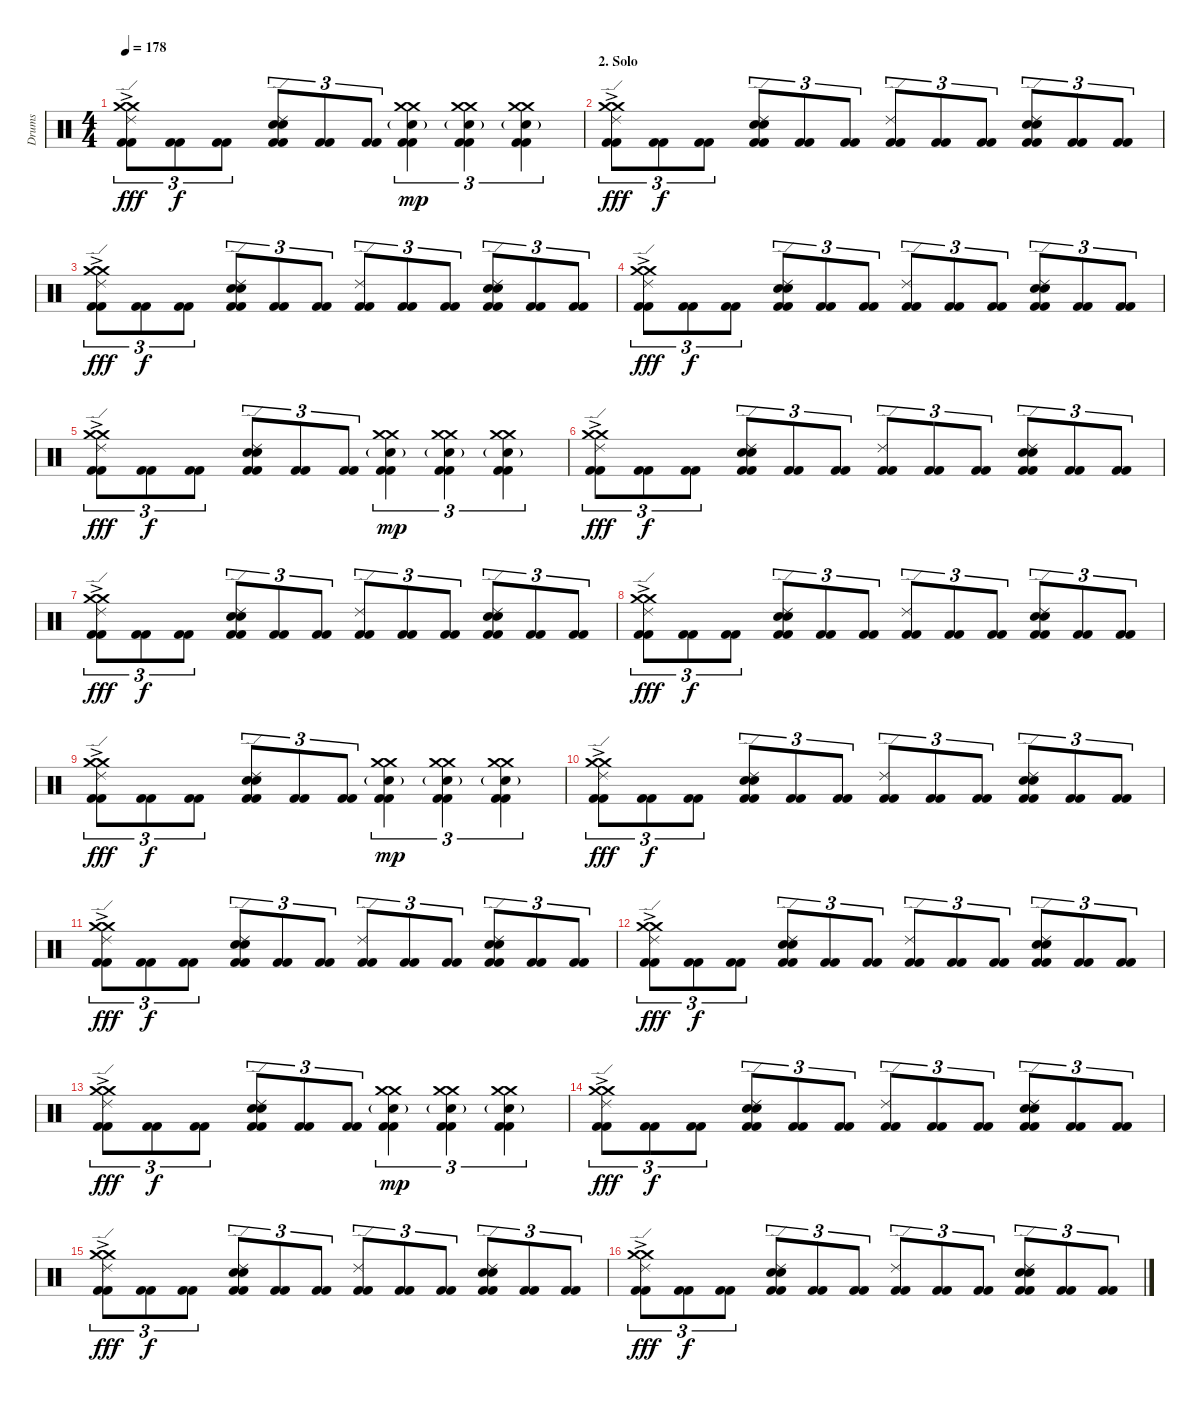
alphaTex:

\track ("Drums" "Drums") {instrument percussion}
\staff {score}
\articulation defaults
\ts (4 4)
\tempo 178
\clef neutral
\ks c
("Crash medium (hit)"{ac} "Crash medium (hit)"{ac} "Ride (edge) 2" "Kick (hit) 2" "Kick (hit) 2").8{tu (3 2) dy fff} ("Kick (hit) 2" "Kick (hit) 2").8{tu (3 2) dy f} ("Kick (hit) 2" "Kick (hit) 2").8{tu (3 2)} ("Ride (edge) 2" "Snare (hit) 2" "Electric Snare (hit)" "Kick (hit) 2" "Kick (hit) 2").8{tu (3 2)} ("Kick (hit) 2" "Kick (hit) 2").8{tu (3 2)} ("Kick (hit) 2" "Kick (hit) 2").8{tu (3 2)} ("Crash medium (hit)" "Crash medium (hit)" "Snare (hit) 2"{g} "Kick (hit) 2" "Kick (hit) 2").4{tu (3 2) dy mp} ("Crash medium (hit)" "Crash medium (hit)" "Snare (hit) 2"{g} "Kick (hit) 2" "Kick (hit) 2").4{tu (3 2)} ("Crash medium (hit)" "Crash medium (hit)" "Snare (hit) 2"{g} "Kick (hit) 2" "Kick (hit) 2").4{tu (3 2)} |
\section ("" "2. Solo")
("Crash medium (hit)"{ac} "Crash medium (hit)"{ac} "Ride (edge) 2" "Kick (hit) 2" "Kick (hit) 2").8{tu (3 2) dy fff} ("Kick (hit) 2" "Kick (hit) 2").8{tu (3 2) dy f} ("Kick (hit) 2" "Kick (hit) 2").8{tu (3 2)} ("Ride (edge) 2" "Snare (hit) 2" "Electric Snare (hit)" "Kick (hit) 2" "Kick (hit) 2").8{tu (3 2)} ("Kick (hit) 2" "Kick (hit) 2").8{tu (3 2)} ("Kick (hit) 2" "Kick (hit) 2").8{tu (3 2)} ("Ride (edge) 2" "Kick (hit) 2" "Kick (hit) 2").8{tu (3 2)} ("Kick (hit) 2" "Kick (hit) 2").8{tu (3 2)} ("Kick (hit) 2" "Kick (hit) 2").8{tu (3 2)} ("Ride (edge) 2" "Snare (hit) 2" "Electric Snare (hit)" "Kick (hit) 2" "Kick (hit) 2").8{tu (3 2)} ("Kick (hit) 2" "Kick (hit) 2").8{tu (3 2)} ("Kick (hit) 2" "Kick (hit) 2").8{tu (3 2)} |
("Crash medium (hit)"{ac} "Crash medium (hit)"{ac} "Ride (edge) 2" "Kick (hit) 2" "Kick (hit) 2").8{tu (3 2) dy fff} ("Kick (hit) 2" "Kick (hit) 2").8{tu (3 2) dy f} ("Kick (hit) 2" "Kick (hit) 2").8{tu (3 2)} ("Ride (edge) 2" "Snare (hit) 2" "Electric Snare (hit)" "Kick (hit) 2" "Kick (hit) 2").8{tu (3 2)} ("Kick (hit) 2" "Kick (hit) 2").8{tu (3 2)} ("Kick (hit) 2" "Kick (hit) 2").8{tu (3 2)} ("Ride (edge) 2" "Kick (hit) 2" "Kick (hit) 2").8{tu (3 2)} ("Kick (hit) 2" "Kick (hit) 2").8{tu (3 2)} ("Kick (hit) 2" "Kick (hit) 2").8{tu (3 2)} ("Ride (edge) 2" "Snare (hit) 2" "Electric Snare (hit)" "Kick (hit) 2" "Kick (hit) 2").8{tu (3 2)} ("Kick (hit) 2" "Kick (hit) 2").8{tu (3 2)} ("Kick (hit) 2" "Kick (hit) 2").8{tu (3 2)} |
("Crash medium (hit)"{ac} "Crash medium (hit)"{ac} "Ride (edge) 2" "Kick (hit) 2" "Kick (hit) 2").8{tu (3 2) dy fff} ("Kick (hit) 2" "Kick (hit) 2").8{tu (3 2) dy f} ("Kick (hit) 2" "Kick (hit) 2").8{tu (3 2)} ("Ride (edge) 2" "Snare (hit) 2" "Electric Snare (hit)" "Kick (hit) 2" "Kick (hit) 2").8{tu (3 2)} ("Kick (hit) 2" "Kick (hit) 2").8{tu (3 2)} ("Kick (hit) 2" "Kick (hit) 2").8{tu (3 2)} ("Ride (edge) 2" "Kick (hit) 2" "Kick (hit) 2").8{tu (3 2)} ("Kick (hit) 2" "Kick (hit) 2").8{tu (3 2)} ("Kick (hit) 2" "Kick (hit) 2").8{tu (3 2)} ("Ride (edge) 2" "Snare (hit) 2" "Electric Snare (hit)" "Kick (hit) 2" "Kick (hit) 2").8{tu (3 2)} ("Kick (hit) 2" "Kick (hit) 2").8{tu (3 2)} ("Kick (hit) 2" "Kick (hit) 2").8{tu (3 2)} |
("Crash medium (hit)"{ac} "Crash medium (hit)"{ac} "Ride (edge) 2" "Kick (hit) 2" "Kick (hit) 2").8{tu (3 2) dy fff} ("Kick (hit) 2" "Kick (hit) 2").8{tu (3 2) dy f} ("Kick (hit) 2" "Kick (hit) 2").8{tu (3 2)} ("Ride (edge) 2" "Snare (hit) 2" "Electric Snare (hit)" "Kick (hit) 2" "Kick (hit) 2").8{tu (3 2)} ("Kick (hit) 2" "Kick (hit) 2").8{tu (3 2)} ("Kick (hit) 2" "Kick (hit) 2").8{tu (3 2)} ("Crash medium (hit)" "Crash medium (hit)" "Snare (hit) 2"{g} "Kick (hit) 2" "Kick (hit) 2").4{tu (3 2) dy mp} ("Crash medium (hit)" "Crash medium (hit)" "Snare (hit) 2"{g} "Kick (hit) 2" "Kick (hit) 2").4{tu (3 2)} ("Crash medium (hit)" "Crash medium (hit)" "Snare (hit) 2"{g} "Kick (hit) 2" "Kick (hit) 2").4{tu (3 2)} |
("Crash medium (hit)"{ac} "Crash medium (hit)"{ac} "Ride (edge) 2" "Kick (hit) 2" "Kick (hit) 2").8{tu (3 2) dy fff} ("Kick (hit) 2" "Kick (hit) 2").8{tu (3 2) dy f} ("Kick (hit) 2" "Kick (hit) 2").8{tu (3 2)} ("Ride (edge) 2" "Snare (hit) 2" "Electric Snare (hit)" "Kick (hit) 2" "Kick (hit) 2").8{tu (3 2)} ("Kick (hit) 2" "Kick (hit) 2").8{tu (3 2)} ("Kick (hit) 2" "Kick (hit) 2").8{tu (3 2)} ("Ride (edge) 2" "Kick (hit) 2" "Kick (hit) 2").8{tu (3 2)} ("Kick (hit) 2" "Kick (hit) 2").8{tu (3 2)} ("Kick (hit) 2" "Kick (hit) 2").8{tu (3 2)} ("Ride (edge) 2" "Snare (hit) 2" "Electric Snare (hit)" "Kick (hit) 2" "Kick (hit) 2").8{tu (3 2)} ("Kick (hit) 2" "Kick (hit) 2").8{tu (3 2)} ("Kick (hit) 2" "Kick (hit) 2").8{tu (3 2)} |
("Crash medium (hit)"{ac} "Crash medium (hit)"{ac} "Ride (edge) 2" "Kick (hit) 2" "Kick (hit) 2").8{tu (3 2) dy fff} ("Kick (hit) 2" "Kick (hit) 2").8{tu (3 2) dy f} ("Kick (hit) 2" "Kick (hit) 2").8{tu (3 2)} ("Ride (edge) 2" "Snare (hit) 2" "Electric Snare (hit)" "Kick (hit) 2" "Kick (hit) 2").8{tu (3 2)} ("Kick (hit) 2" "Kick (hit) 2").8{tu (3 2)} ("Kick (hit) 2" "Kick (hit) 2").8{tu (3 2)} ("Ride (edge) 2" "Kick (hit) 2" "Kick (hit) 2").8{tu (3 2)} ("Kick (hit) 2" "Kick (hit) 2").8{tu (3 2)} ("Kick (hit) 2" "Kick (hit) 2").8{tu (3 2)} ("Ride (edge) 2" "Snare (hit) 2" "Electric Snare (hit)" "Kick (hit) 2" "Kick (hit) 2").8{tu (3 2)} ("Kick (hit) 2" "Kick (hit) 2").8{tu (3 2)} ("Kick (hit) 2" "Kick (hit) 2").8{tu (3 2)} |
("Crash medium (hit)"{ac} "Crash medium (hit)"{ac} "Ride (edge) 2" "Kick (hit) 2" "Kick (hit) 2").8{tu (3 2) dy fff} ("Kick (hit) 2" "Kick (hit) 2").8{tu (3 2) dy f} ("Kick (hit) 2" "Kick (hit) 2").8{tu (3 2)} ("Ride (edge) 2" "Snare (hit) 2" "Electric Snare (hit)" "Kick (hit) 2" "Kick (hit) 2").8{tu (3 2)} ("Kick (hit) 2" "Kick (hit) 2").8{tu (3 2)} ("Kick (hit) 2" "Kick (hit) 2").8{tu (3 2)} ("Ride (edge) 2" "Kick (hit) 2" "Kick (hit) 2").8{tu (3 2)} ("Kick (hit) 2" "Kick (hit) 2").8{tu (3 2)} ("Kick (hit) 2" "Kick (hit) 2").8{tu (3 2)} ("Ride (edge) 2" "Snare (hit) 2" "Electric Snare (hit)" "Kick (hit) 2" "Kick (hit) 2").8{tu (3 2)} ("Kick (hit) 2" "Kick (hit) 2").8{tu (3 2)} ("Kick (hit) 2" "Kick (hit) 2").8{tu (3 2)} |
("Crash medium (hit)"{ac} "Crash medium (hit)"{ac} "Ride (edge) 2" "Kick (hit) 2" "Kick (hit) 2").8{tu (3 2) dy fff} ("Kick (hit) 2" "Kick (hit) 2").8{tu (3 2) dy f} ("Kick (hit) 2" "Kick (hit) 2").8{tu (3 2)} ("Ride (edge) 2" "Snare (hit) 2" "Electric Snare (hit)" "Kick (hit) 2" "Kick (hit) 2").8{tu (3 2)} ("Kick (hit) 2" "Kick (hit) 2").8{tu (3 2)} ("Kick (hit) 2" "Kick (hit) 2").8{tu (3 2)} ("Crash medium (hit)" "Crash medium (hit)" "Snare (hit) 2"{g} "Kick (hit) 2" "Kick (hit) 2").4{tu (3 2) dy mp} ("Crash medium (hit)" "Crash medium (hit)" "Snare (hit) 2"{g} "Kick (hit) 2" "Kick (hit) 2").4{tu (3 2)} ("Crash medium (hit)" "Crash medium (hit)" "Snare (hit) 2"{g} "Kick (hit) 2" "Kick (hit) 2").4{tu (3 2)} |
("Crash medium (hit)"{ac} "Crash medium (hit)"{ac} "Ride (edge) 2" "Kick (hit) 2" "Kick (hit) 2").8{tu (3 2) dy fff} ("Kick (hit) 2" "Kick (hit) 2").8{tu (3 2) dy f} ("Kick (hit) 2" "Kick (hit) 2").8{tu (3 2)} ("Ride (edge) 2" "Snare (hit) 2" "Electric Snare (hit)" "Kick (hit) 2" "Kick (hit) 2").8{tu (3 2)} ("Kick (hit) 2" "Kick (hit) 2").8{tu (3 2)} ("Kick (hit) 2" "Kick (hit) 2").8{tu (3 2)} ("Ride (edge) 2" "Kick (hit) 2" "Kick (hit) 2").8{tu (3 2)} ("Kick (hit) 2" "Kick (hit) 2").8{tu (3 2)} ("Kick (hit) 2" "Kick (hit) 2").8{tu (3 2)} ("Ride (edge) 2" "Snare (hit) 2" "Electric Snare (hit)" "Kick (hit) 2" "Kick (hit) 2").8{tu (3 2)} ("Kick (hit) 2" "Kick (hit) 2").8{tu (3 2)} ("Kick (hit) 2" "Kick (hit) 2").8{tu (3 2)} |
("Crash medium (hit)"{ac} "Crash medium (hit)"{ac} "Ride (edge) 2" "Kick (hit) 2" "Kick (hit) 2").8{tu (3 2) dy fff} ("Kick (hit) 2" "Kick (hit) 2").8{tu (3 2) dy f} ("Kick (hit) 2" "Kick (hit) 2").8{tu (3 2)} ("Ride (edge) 2" "Snare (hit) 2" "Electric Snare (hit)" "Kick (hit) 2" "Kick (hit) 2").8{tu (3 2)} ("Kick (hit) 2" "Kick (hit) 2").8{tu (3 2)} ("Kick (hit) 2" "Kick (hit) 2").8{tu (3 2)} ("Ride (edge) 2" "Kick (hit) 2" "Kick (hit) 2").8{tu (3 2)} ("Kick (hit) 2" "Kick (hit) 2").8{tu (3 2)} ("Kick (hit) 2" "Kick (hit) 2").8{tu (3 2)} ("Ride (edge) 2" "Snare (hit) 2" "Electric Snare (hit)" "Kick (hit) 2" "Kick (hit) 2").8{tu (3 2)} ("Kick (hit) 2" "Kick (hit) 2").8{tu (3 2)} ("Kick (hit) 2" "Kick (hit) 2").8{tu (3 2)} |
("Crash medium (hit)"{ac} "Crash medium (hit)"{ac} "Ride (edge) 2" "Kick (hit) 2" "Kick (hit) 2").8{tu (3 2) dy fff} ("Kick (hit) 2" "Kick (hit) 2").8{tu (3 2) dy f} ("Kick (hit) 2" "Kick (hit) 2").8{tu (3 2)} ("Ride (edge) 2" "Snare (hit) 2" "Electric Snare (hit)" "Kick (hit) 2" "Kick (hit) 2").8{tu (3 2)} ("Kick (hit) 2" "Kick (hit) 2").8{tu (3 2)} ("Kick (hit) 2" "Kick (hit) 2").8{tu (3 2)} ("Ride (edge) 2" "Kick (hit) 2" "Kick (hit) 2").8{tu (3 2)} ("Kick (hit) 2" "Kick (hit) 2").8{tu (3 2)} ("Kick (hit) 2" "Kick (hit) 2").8{tu (3 2)} ("Ride (edge) 2" "Snare (hit) 2" "Electric Snare (hit)" "Kick (hit) 2" "Kick (hit) 2").8{tu (3 2)} ("Kick (hit) 2" "Kick (hit) 2").8{tu (3 2)} ("Kick (hit) 2" "Kick (hit) 2").8{tu (3 2)} |
("Crash medium (hit)"{ac} "Crash medium (hit)"{ac} "Ride (edge) 2" "Kick (hit) 2" "Kick (hit) 2").8{tu (3 2) dy fff} ("Kick (hit) 2" "Kick (hit) 2").8{tu (3 2) dy f} ("Kick (hit) 2" "Kick (hit) 2").8{tu (3 2)} ("Ride (edge) 2" "Snare (hit) 2" "Electric Snare (hit)" "Kick (hit) 2" "Kick (hit) 2").8{tu (3 2)} ("Kick (hit) 2" "Kick (hit) 2").8{tu (3 2)} ("Kick (hit) 2" "Kick (hit) 2").8{tu (3 2)} ("Crash medium (hit)" "Crash medium (hit)" "Snare (hit) 2"{g} "Kick (hit) 2" "Kick (hit) 2").4{tu (3 2) dy mp} ("Crash medium (hit)" "Crash medium (hit)" "Snare (hit) 2"{g} "Kick (hit) 2" "Kick (hit) 2").4{tu (3 2)} ("Crash medium (hit)" "Crash medium (hit)" "Snare (hit) 2"{g} "Kick (hit) 2" "Kick (hit) 2").4{tu (3 2)} |
("Crash medium (hit)"{ac} "Crash medium (hit)"{ac} "Ride (edge) 2" "Kick (hit) 2" "Kick (hit) 2").8{tu (3 2) dy fff} ("Kick (hit) 2" "Kick (hit) 2").8{tu (3 2) dy f} ("Kick (hit) 2" "Kick (hit) 2").8{tu (3 2)} ("Ride (edge) 2" "Snare (hit) 2" "Electric Snare (hit)" "Kick (hit) 2" "Kick (hit) 2").8{tu (3 2)} ("Kick (hit) 2" "Kick (hit) 2").8{tu (3 2)} ("Kick (hit) 2" "Kick (hit) 2").8{tu (3 2)} ("Ride (edge) 2" "Kick (hit) 2" "Kick (hit) 2").8{tu (3 2)} ("Kick (hit) 2" "Kick (hit) 2").8{tu (3 2)} ("Kick (hit) 2" "Kick (hit) 2").8{tu (3 2)} ("Ride (edge) 2" "Snare (hit) 2" "Electric Snare (hit)" "Kick (hit) 2" "Kick (hit) 2").8{tu (3 2)} ("Kick (hit) 2" "Kick (hit) 2").8{tu (3 2)} ("Kick (hit) 2" "Kick (hit) 2").8{tu (3 2)} |
("Crash medium (hit)"{ac} "Crash medium (hit)"{ac} "Ride (edge) 2" "Kick (hit) 2" "Kick (hit) 2").8{tu (3 2) dy fff} ("Kick (hit) 2" "Kick (hit) 2").8{tu (3 2) dy f} ("Kick (hit) 2" "Kick (hit) 2").8{tu (3 2)} ("Ride (edge) 2" "Snare (hit) 2" "Electric Snare (hit)" "Kick (hit) 2" "Kick (hit) 2").8{tu (3 2)} ("Kick (hit) 2" "Kick (hit) 2").8{tu (3 2)} ("Kick (hit) 2" "Kick (hit) 2").8{tu (3 2)} ("Ride (edge) 2" "Kick (hit) 2" "Kick (hit) 2").8{tu (3 2)} ("Kick (hit) 2" "Kick (hit) 2").8{tu (3 2)} ("Kick (hit) 2" "Kick (hit) 2").8{tu (3 2)} ("Ride (edge) 2" "Snare (hit) 2" "Electric Snare (hit)" "Kick (hit) 2" "Kick (hit) 2").8{tu (3 2)} ("Kick (hit) 2" "Kick (hit) 2").8{tu (3 2)} ("Kick (hit) 2" "Kick (hit) 2").8{tu (3 2)} |
("Crash medium (hit)"{ac} "Crash medium (hit)"{ac} "Ride (edge) 2" "Kick (hit) 2" "Kick (hit) 2").8{tu (3 2) dy fff} ("Kick (hit) 2" "Kick (hit) 2").8{tu (3 2) dy f} ("Kick (hit) 2" "Kick (hit) 2").8{tu (3 2)} ("Ride (edge) 2" "Snare (hit) 2" "Electric Snare (hit)" "Kick (hit) 2" "Kick (hit) 2").8{tu (3 2)} ("Kick (hit) 2" "Kick (hit) 2").8{tu (3 2)} ("Kick (hit) 2" "Kick (hit) 2").8{tu (3 2)} ("Ride (edge) 2" "Kick (hit) 2" "Kick (hit) 2").8{tu (3 2)} ("Kick (hit) 2" "Kick (hit) 2").8{tu (3 2)} ("Kick (hit) 2" "Kick (hit) 2").8{tu (3 2)} ("Ride (edge) 2" "Snare (hit) 2" "Electric Snare (hit)" "Kick (hit) 2" "Kick (hit) 2").8{tu (3 2)} ("Kick (hit) 2" "Kick (hit) 2").8{tu (3 2)} ("Kick (hit) 2" "Kick (hit) 2").8{tu (3 2)}
